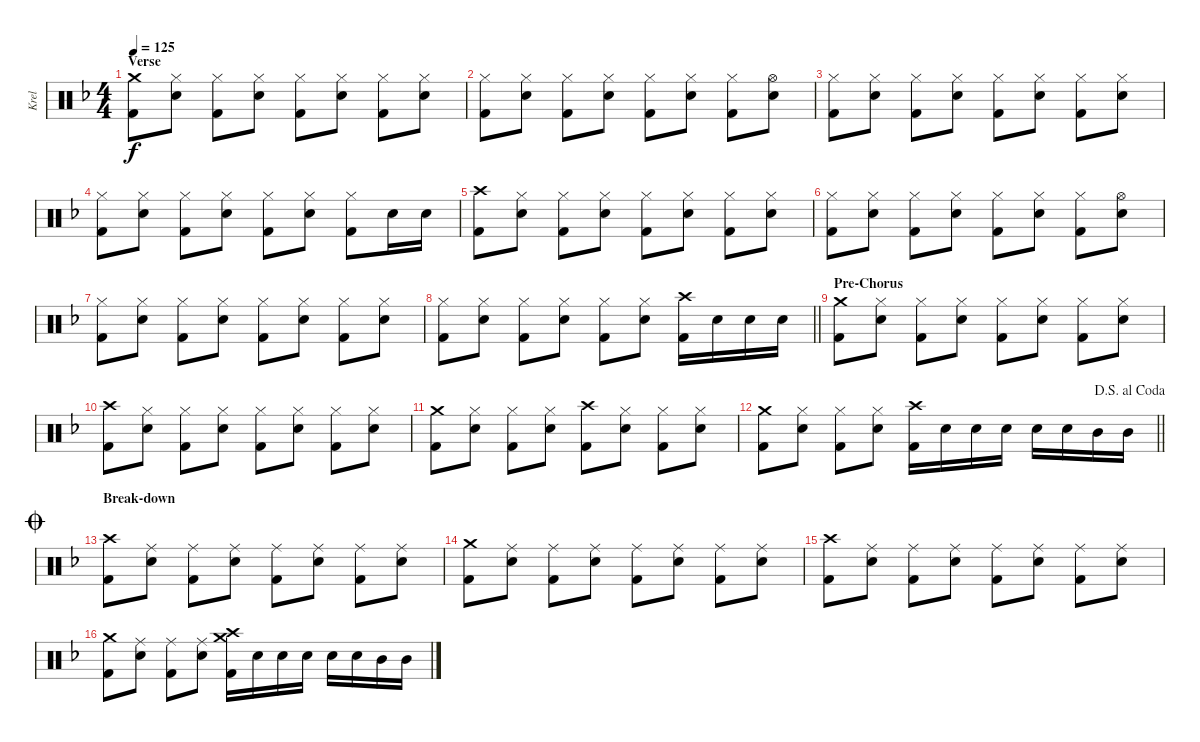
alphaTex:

\track ("Krel" "Krel") {instrument percussion}
\staff {score}
\articulation defaults
\ts (4 4)
\section ("" "Verse")
\tempo 125
\clef neutral
\ks f
("Crash medium (hit)" "Kick (hit) 2").8{dy f} ("Hi-Hat (closed)" "Snare (hit) 2").8 ("Hi-Hat (closed)" "Kick (hit) 2").8 ("Hi-Hat (closed)" "Snare (hit) 2").8 ("Hi-Hat (closed)" "Kick (hit) 2").8 ("Hi-Hat (closed)" "Snare (hit) 2").8 ("Hi-Hat (closed)" "Kick (hit) 2").8 ("Hi-Hat (closed)" "Snare (hit) 2").8 |
("Hi-Hat (closed)" "Kick (hit) 2").8 ("Hi-Hat (closed)" "Snare (hit) 2").8 ("Hi-Hat (closed)" "Kick (hit) 2").8 ("Hi-Hat (closed)" "Snare (hit) 2").8 ("Hi-Hat (closed)" "Kick (hit) 2").8 ("Hi-Hat (closed)" "Snare (hit) 2").8 ("Hi-Hat (closed)" "Kick (hit) 2").8 ("Hi-Hat (open)" "Snare (hit) 2").8 |
("Hi-Hat (closed)" "Kick (hit) 2").8 ("Hi-Hat (closed)" "Snare (hit) 2").8 ("Hi-Hat (closed)" "Kick (hit) 2").8 ("Hi-Hat (closed)" "Snare (hit) 2").8 ("Hi-Hat (closed)" "Kick (hit) 2").8 ("Hi-Hat (closed)" "Snare (hit) 2").8 ("Hi-Hat (closed)" "Kick (hit) 2").8 ("Hi-Hat (closed)" "Snare (hit) 2").8 |
("Hi-Hat (closed)" "Kick (hit) 2").8 ("Hi-Hat (closed)" "Snare (hit) 2").8 ("Hi-Hat (closed)" "Kick (hit) 2").8 ("Hi-Hat (closed)" "Snare (hit) 2").8 ("Hi-Hat (closed)" "Kick (hit) 2").8 ("Hi-Hat (closed)" "Snare (hit) 2").8 ("Hi-Hat (closed)" "Kick (hit) 2").8 "Snare (hit) 2".16 "Snare (hit) 2".16 |
("Crash high (hit)" "Kick (hit) 2").8 ("Hi-Hat (closed)" "Snare (hit) 2").8 ("Hi-Hat (closed)" "Kick (hit) 2").8 ("Hi-Hat (closed)" "Snare (hit) 2").8 ("Hi-Hat (closed)" "Kick (hit) 2").8 ("Hi-Hat (closed)" "Snare (hit) 2").8 ("Hi-Hat (closed)" "Kick (hit) 2").8 ("Hi-Hat (closed)" "Snare (hit) 2").8 |
("Hi-Hat (closed)" "Kick (hit) 2").8 ("Hi-Hat (closed)" "Snare (hit) 2").8 ("Hi-Hat (closed)" "Kick (hit) 2").8 ("Hi-Hat (closed)" "Snare (hit) 2").8 ("Hi-Hat (closed)" "Kick (hit) 2").8 ("Hi-Hat (closed)" "Snare (hit) 2").8 ("Hi-Hat (closed)" "Kick (hit) 2").8 ("Hi-Hat (open)" "Snare (hit) 2").8 |
("Hi-Hat (closed)" "Kick (hit) 2").8 ("Hi-Hat (closed)" "Snare (hit) 2").8 ("Hi-Hat (closed)" "Kick (hit) 2").8 ("Hi-Hat (closed)" "Snare (hit) 2").8 ("Hi-Hat (closed)" "Kick (hit) 2").8 ("Hi-Hat (closed)" "Snare (hit) 2").8 ("Hi-Hat (closed)" "Kick (hit) 2").8 ("Hi-Hat (closed)" "Snare (hit) 2").8 |
\barLineRight lightlight
("Hi-Hat (closed)" "Kick (hit) 2").8 ("Hi-Hat (closed)" "Snare (hit) 2").8 ("Hi-Hat (closed)" "Kick (hit) 2").8 ("Hi-Hat (closed)" "Snare (hit) 2").8 ("Hi-Hat (closed)" "Kick (hit) 2").8 ("Hi-Hat (closed)" "Snare (hit) 2").8 ("Crash high (hit)" "Kick (hit) 2").16 "Snare (hit) 2".16 "Snare (hit) 2".16 "Snare (hit) 2".16 |
\section ("" "Pre-Chorus")
("Crash medium (hit)" "Kick (hit) 2").8 ("Hi-Hat (closed)" "Snare (hit) 2").8 ("Hi-Hat (closed)" "Kick (hit) 2").8 ("Hi-Hat (closed)" "Snare (hit) 2").8 ("Hi-Hat (closed)" "Kick (hit) 2").8 ("Hi-Hat (closed)" "Snare (hit) 2").8 ("Hi-Hat (closed)" "Kick (hit) 2").8 ("Hi-Hat (closed)" "Snare (hit) 2").8 |
("Crash high (hit)" "Kick (hit) 2").8 ("Hi-Hat (closed)" "Snare (hit) 2").8 ("Hi-Hat (closed)" "Kick (hit) 2").8 ("Hi-Hat (closed)" "Snare (hit) 2").8 ("Hi-Hat (closed)" "Kick (hit) 2").8 ("Hi-Hat (closed)" "Snare (hit) 2").8 ("Hi-Hat (closed)" "Kick (hit) 2").8 ("Hi-Hat (closed)" "Snare (hit) 2").8 |
("Crash medium (hit)" "Kick (hit) 2").8 ("Hi-Hat (closed)" "Snare (hit) 2").8 ("Hi-Hat (closed)" "Kick (hit) 2").8 ("Hi-Hat (closed)" "Snare (hit) 2").8 ("Crash high (hit)" "Kick (hit) 2").8 ("Hi-Hat (closed)" "Snare (hit) 2").8 ("Hi-Hat (closed)" "Kick (hit) 2").8 ("Hi-Hat (closed)" "Snare (hit) 2").8 |
\jump dalsegnoalcoda
\barLineRight lightlight
("Crash medium (hit)" "Kick (hit) 2").8 ("Hi-Hat (closed)" "Snare (hit) 2").8 ("Hi-Hat (closed)" "Kick (hit) 2").8 ("Hi-Hat (closed)" "Snare (hit) 2").8 ("Crash high (hit)" "Kick (hit) 2").16 "Snare (hit) 2".16 "Snare (hit) 2".16 "Snare (hit) 2".16 "Snare (hit) 2".16 "Snare (hit) 2".16 "Mid Tom (hit)".16 "Mid Tom (hit)".16 |
\section ("" "Break-down")
\jump coda
("Crash high (hit)" "Kick (hit) 2").8 ("Ride (middle)" "Snare (hit) 2").8 ("Ride (middle)" "Kick (hit) 2").8 ("Ride (middle)" "Snare (hit) 2").8 ("Ride (middle)" "Kick (hit) 2").8 ("Ride (middle)" "Snare (hit) 2").8 ("Ride (middle)" "Kick (hit) 2").8 ("Ride (middle)" "Snare (hit) 2").8 |
("Crash medium (hit)" "Kick (hit) 2").8 ("Ride (middle)" "Snare (hit) 2").8 ("Ride (middle)" "Kick (hit) 2").8 ("Ride (middle)" "Snare (hit) 2").8 ("Ride (middle)" "Kick (hit) 2").8 ("Ride (middle)" "Snare (hit) 2").8 ("Ride (middle)" "Kick (hit) 2").8 ("Ride (middle)" "Snare (hit) 2").8 |
("Crash high (hit)" "Kick (hit) 2").8 ("Ride (middle)" "Snare (hit) 2").8 ("Ride (middle)" "Kick (hit) 2").8 ("Ride (middle)" "Snare (hit) 2").8 ("Ride (middle)" "Kick (hit) 2").8 ("Ride (middle)" "Snare (hit) 2").8 ("Ride (middle)" "Kick (hit) 2").8 ("Ride (middle)" "Snare (hit) 2").8 |
("Crash medium (hit)" "Kick (hit) 2").8 ("Ride (middle)" "Snare (hit) 2").8 ("Ride (middle)" "Kick (hit) 2").8 ("Ride (middle)" "Snare (hit) 2").8 ("Crash high (hit)" "Crash medium (hit)" "Kick (hit) 2").16 "Snare (hit) 2".16 "Snare (hit) 2".16 "Snare (hit) 2".16 "Snare (hit) 2".16 "Snare (hit) 2".16 "Mid Tom (hit)".16 "Mid Tom (hit)".16
